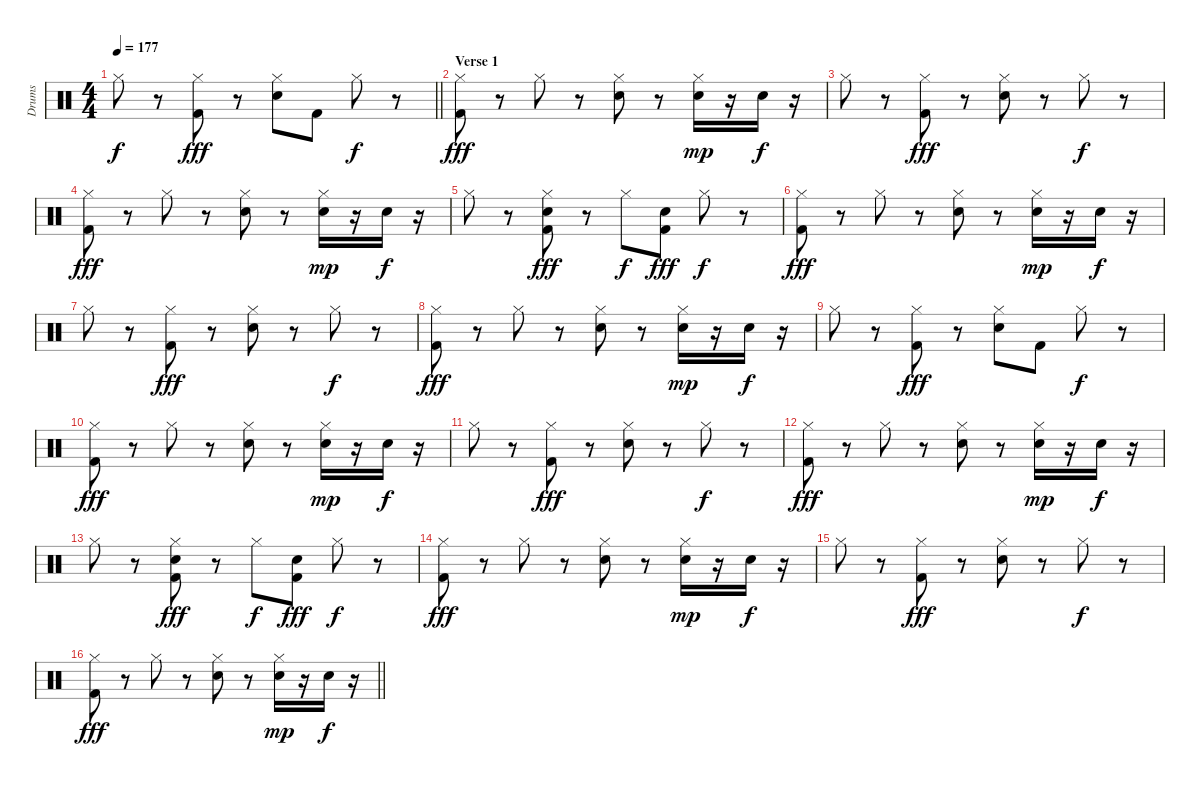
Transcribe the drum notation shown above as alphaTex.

\track ("Drums" "Drums") {instrument percussion}
\staff {score}
\articulation defaults
\ts (4 4)
\tempo 177
\clef neutral
\barLineRight lightlight
\ks c "Hi-Hat (closed)".8{dy f}
r.8 ("Hi-Hat (closed)" "Kick (hit) 2").8{dy fff} r.8 ("Hi-Hat (closed)" "Snare (hit) 2").8 "Kick (hit) 2".8 "Hi-Hat (closed)".8{dy f} r.8 |
\section ("" "Verse 1")
("Hi-Hat (closed)" "Kick (hit) 2").8{dy fff} r.8 "Hi-Hat (closed)".8 r.8 ("Hi-Hat (closed)" "Snare (hit) 2").8 r.8 ("Hi-Hat (closed)" "Snare (hit) 2").16{dy mp} r.16 "Snare (hit) 2".16{dy f} r.16 |
"Hi-Hat (closed)".8 r.8 ("Hi-Hat (closed)" "Kick (hit) 2").8{dy fff} r.8 ("Hi-Hat (closed)" "Snare (hit) 2").8 r.8 "Hi-Hat (closed)".8{dy f} r.8 |
("Hi-Hat (closed)" "Kick (hit) 2").8{dy fff} r.8 "Hi-Hat (closed)".8 r.8 ("Hi-Hat (closed)" "Snare (hit) 2").8 r.8 ("Hi-Hat (closed)" "Snare (hit) 2").16{dy mp} r.16 "Snare (hit) 2".16{dy f} r.16 |
"Hi-Hat (closed)".8 r.8 ("Hi-Hat (closed)" "Snare (hit) 2" "Kick (hit) 2").8{dy fff} r.8 "Hi-Hat (closed)".8{dy f} ("Snare (hit) 2" "Kick (hit) 2").8{dy fff} "Hi-Hat (closed)".8{dy f} r.8 |
("Hi-Hat (closed)" "Kick (hit) 2").8{dy fff} r.8 "Hi-Hat (closed)".8 r.8 ("Hi-Hat (closed)" "Snare (hit) 2").8 r.8 ("Hi-Hat (closed)" "Snare (hit) 2").16{dy mp} r.16 "Snare (hit) 2".16{dy f} r.16 |
"Hi-Hat (closed)".8 r.8 ("Hi-Hat (closed)" "Kick (hit) 2").8{dy fff} r.8 ("Hi-Hat (closed)" "Snare (hit) 2").8 r.8 "Hi-Hat (closed)".8{dy f} r.8 |
("Hi-Hat (closed)" "Kick (hit) 2").8{dy fff} r.8 "Hi-Hat (closed)".8 r.8 ("Hi-Hat (closed)" "Snare (hit) 2").8 r.8 ("Hi-Hat (closed)" "Snare (hit) 2").16{dy mp} r.16 "Snare (hit) 2".16{dy f} r.16 |
"Hi-Hat (closed)".8 r.8 ("Hi-Hat (closed)" "Kick (hit) 2").8{dy fff} r.8 ("Hi-Hat (closed)" "Snare (hit) 2").8 "Kick (hit) 2".8 "Hi-Hat (closed)".8{dy f} r.8 |
("Hi-Hat (closed)" "Kick (hit) 2").8{dy fff} r.8 "Hi-Hat (closed)".8 r.8 ("Hi-Hat (closed)" "Snare (hit) 2").8 r.8 ("Hi-Hat (closed)" "Snare (hit) 2").16{dy mp} r.16 "Snare (hit) 2".16{dy f} r.16 |
"Hi-Hat (closed)".8 r.8 ("Hi-Hat (closed)" "Kick (hit) 2").8{dy fff} r.8 ("Hi-Hat (closed)" "Snare (hit) 2").8 r.8 "Hi-Hat (closed)".8{dy f} r.8 |
("Hi-Hat (closed)" "Kick (hit) 2").8{dy fff} r.8 "Hi-Hat (closed)".8 r.8 ("Hi-Hat (closed)" "Snare (hit) 2").8 r.8 ("Hi-Hat (closed)" "Snare (hit) 2").16{dy mp} r.16 "Snare (hit) 2".16{dy f} r.16 |
"Hi-Hat (closed)".8 r.8 ("Hi-Hat (closed)" "Snare (hit) 2" "Kick (hit) 2").8{dy fff} r.8 "Hi-Hat (closed)".8{dy f} ("Snare (hit) 2" "Kick (hit) 2").8{dy fff} "Hi-Hat (closed)".8{dy f} r.8 |
("Hi-Hat (closed)" "Kick (hit) 2").8{dy fff} r.8 "Hi-Hat (closed)".8 r.8 ("Hi-Hat (closed)" "Snare (hit) 2").8 r.8 ("Hi-Hat (closed)" "Snare (hit) 2").16{dy mp} r.16 "Snare (hit) 2".16{dy f} r.16 |
"Hi-Hat (closed)".8 r.8 ("Hi-Hat (closed)" "Kick (hit) 2").8{dy fff} r.8 ("Hi-Hat (closed)" "Snare (hit) 2").8 r.8 "Hi-Hat (closed)".8{dy f} r.8 |
\barLineRight lightlight
("Hi-Hat (closed)" "Kick (hit) 2").8{dy fff} r.8 "Hi-Hat (closed)".8 r.8 ("Hi-Hat (closed)" "Snare (hit) 2").8 r.8 ("Hi-Hat (closed)" "Snare (hit) 2").16{dy mp} r.16 "Snare (hit) 2".16{dy f} r.16
